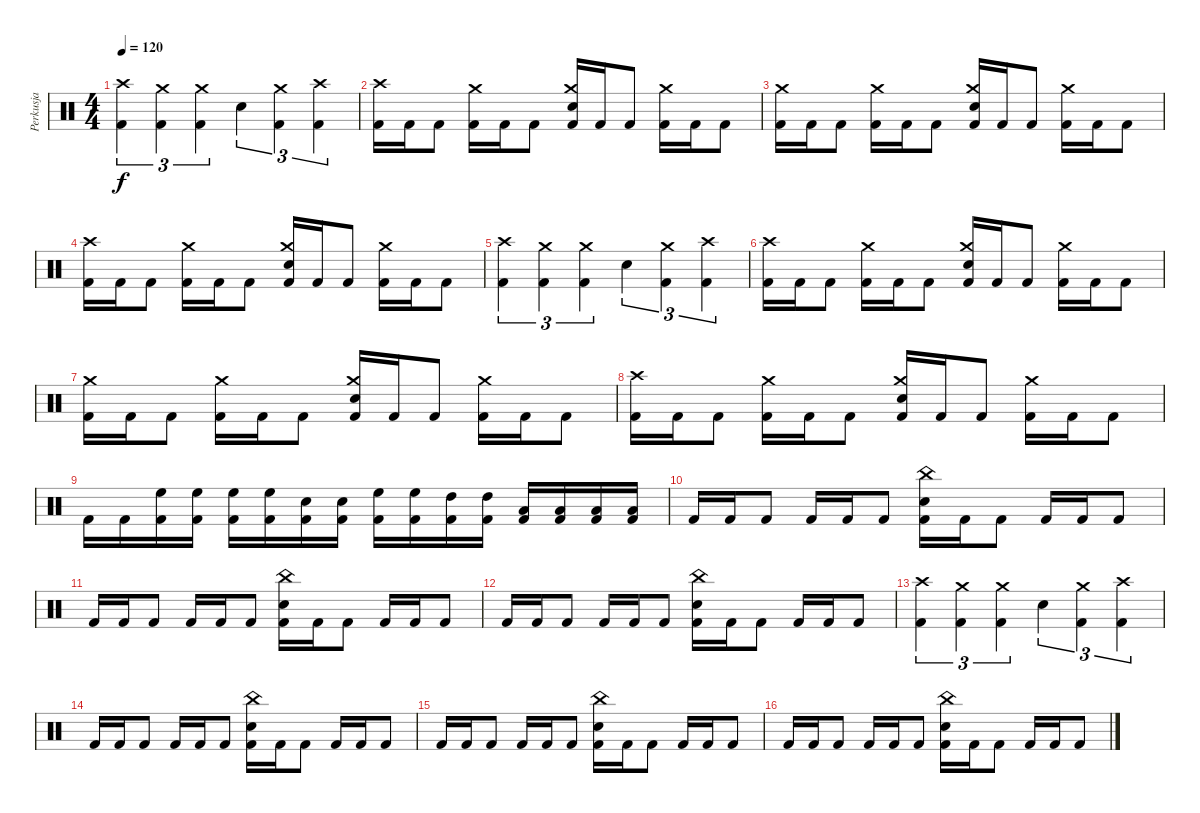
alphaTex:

\track ("Perkusja" "Perkusja") {instrument percussion}
\staff {score}
\articulation defaults
\ts (4 4)
\tempo 120
\clef neutral
\ks c
("Crash high (hit)" "Kick (hit) 2").4{tu (3 2) dy f} ("Crash medium (hit)" "Kick (hit) 2").4{tu (3 2)} ("Crash medium (hit)" "Kick (hit) 2").4{tu (3 2)} "Electric Snare (hit)".4{tu (3 2)} ("Crash medium (hit)" "Kick (hit) 2").4{tu (3 2)} ("Crash high (hit)" "Kick (hit) 2").4{tu (3 2)} |
("Crash high (hit)" "Kick (hit) 2").16 "Kick (hit) 2".16 "Kick (hit) 2".8 ("Crash medium (hit)" "Kick (hit) 2").16 "Kick (hit) 2".16 "Kick (hit) 2".8 ("Crash medium (hit)" "Electric Snare (hit)" "Kick (hit) 2").16 "Kick (hit) 2".16 "Kick (hit) 2".8 ("Crash medium (hit)" "Kick (hit) 2").16 "Kick (hit) 2".16 "Kick (hit) 2".8 |
("Crash medium (hit)" "Kick (hit) 2").16 "Kick (hit) 2".16 "Kick (hit) 2".8 ("Crash medium (hit)" "Kick (hit) 2").16 "Kick (hit) 2".16 "Kick (hit) 2".8 ("Crash medium (hit)" "Electric Snare (hit)" "Kick (hit) 2").16 "Kick (hit) 2".16 "Kick (hit) 2".8 ("Crash medium (hit)" "Kick (hit) 2").16 "Kick (hit) 2".16 "Kick (hit) 2".8 |
("Crash high (hit)" "Kick (hit) 2").16 "Kick (hit) 2".16 "Kick (hit) 2".8 ("Crash medium (hit)" "Kick (hit) 2").16 "Kick (hit) 2".16 "Kick (hit) 2".8 ("Crash medium (hit)" "Electric Snare (hit)" "Kick (hit) 2").16 "Kick (hit) 2".16 "Kick (hit) 2".8 ("Crash medium (hit)" "Kick (hit) 2").16 "Kick (hit) 2".16 "Kick (hit) 2".8 |
("Crash high (hit)" "Kick (hit) 2").4{tu (3 2)} ("Crash medium (hit)" "Kick (hit) 2").4{tu (3 2)} ("Crash medium (hit)" "Kick (hit) 2").4{tu (3 2)} "Electric Snare (hit)".4{tu (3 2)} ("Crash medium (hit)" "Kick (hit) 2").4{tu (3 2)} ("Crash high (hit)" "Kick (hit) 2").4{tu (3 2)} |
("Crash high (hit)" "Kick (hit) 2").16 "Kick (hit) 2".16 "Kick (hit) 2".8 ("Crash medium (hit)" "Kick (hit) 2").16 "Kick (hit) 2".16 "Kick (hit) 2".8 ("Crash medium (hit)" "Electric Snare (hit)" "Kick (hit) 2").16 "Kick (hit) 2".16 "Kick (hit) 2".8 ("Crash medium (hit)" "Kick (hit) 2").16 "Kick (hit) 2".16 "Kick (hit) 2".8 |
("Crash medium (hit)" "Kick (hit) 2").16 "Kick (hit) 2".16 "Kick (hit) 2".8 ("Crash medium (hit)" "Kick (hit) 2").16 "Kick (hit) 2".16 "Kick (hit) 2".8 ("Crash medium (hit)" "Electric Snare (hit)" "Kick (hit) 2").16 "Kick (hit) 2".16 "Kick (hit) 2".8 ("Crash medium (hit)" "Kick (hit) 2").16 "Kick (hit) 2".16 "Kick (hit) 2".8 |
("Crash high (hit)" "Kick (hit) 2").16 "Kick (hit) 2".16 "Kick (hit) 2".8 ("Crash medium (hit)" "Kick (hit) 2").16 "Kick (hit) 2".16 "Kick (hit) 2".8 ("Crash medium (hit)" "Electric Snare (hit)" "Kick (hit) 2").16 "Kick (hit) 2".16 "Kick (hit) 2".8 ("Crash medium (hit)" "Kick (hit) 2").16 "Kick (hit) 2".16 "Kick (hit) 2".8 |
"Kick (hit) 2".16 "Kick (hit) 2".16 ("High Floor Tom (hit)" "Kick (hit) 2").16 ("High Floor Tom (hit)" "Kick (hit) 2").16 ("High Floor Tom (hit)" "Kick (hit) 2").16 ("High Floor Tom (hit)" "Kick (hit) 2").16 ("Electric Snare (hit)" "Kick (hit) 2").16 ("Electric Snare (hit)" "Kick (hit) 2").16 ("High Floor Tom (hit)" "Kick (hit) 2").16 ("High Floor Tom (hit)" "Kick (hit) 2").16 ("High Tom (hit)" "Kick (hit) 2").16 ("High Tom (hit)" "Kick (hit) 2").16 ("Low Floor Tom (hit)" "Kick (hit) 2").16 ("Low Floor Tom (hit)" "Kick (hit) 2").16 ("Low Floor Tom (hit)" "Kick (hit) 2").16 ("Low Floor Tom (hit)" "Kick (hit) 2").16 |
"Kick (hit) 2".16 "Kick (hit) 2".16 "Kick (hit) 2".8 "Kick (hit) 2".16 "Kick (hit) 2".16 "Kick (hit) 2".8 ("China (hit)" "Electric Snare (hit)" "Kick (hit) 2").16 "Kick (hit) 2".16 "Kick (hit) 2".8 "Kick (hit) 2".16 "Kick (hit) 2".16 "Kick (hit) 2".8 |
"Kick (hit) 2".16 "Kick (hit) 2".16 "Kick (hit) 2".8 "Kick (hit) 2".16 "Kick (hit) 2".16 "Kick (hit) 2".8 ("China (hit)" "Electric Snare (hit)" "Kick (hit) 2").16 "Kick (hit) 2".16 "Kick (hit) 2".8 "Kick (hit) 2".16 "Kick (hit) 2".16 "Kick (hit) 2".8 |
"Kick (hit) 2".16 "Kick (hit) 2".16 "Kick (hit) 2".8 "Kick (hit) 2".16 "Kick (hit) 2".16 "Kick (hit) 2".8 ("China (hit)" "Electric Snare (hit)" "Kick (hit) 2").16 "Kick (hit) 2".16 "Kick (hit) 2".8 "Kick (hit) 2".16 "Kick (hit) 2".16 "Kick (hit) 2".8 |
("Crash high (hit)" "Kick (hit) 2").4{tu (3 2)} ("Crash medium (hit)" "Kick (hit) 2").4{tu (3 2)} ("Crash medium (hit)" "Kick (hit) 2").4{tu (3 2)} "Electric Snare (hit)".4{tu (3 2)} ("Crash medium (hit)" "Kick (hit) 2").4{tu (3 2)} ("Crash high (hit)" "Kick (hit) 2").4{tu (3 2)} |
"Kick (hit) 2".16 "Kick (hit) 2".16 "Kick (hit) 2".8 "Kick (hit) 2".16 "Kick (hit) 2".16 "Kick (hit) 2".8 ("China (hit)" "Electric Snare (hit)" "Kick (hit) 2").16 "Kick (hit) 2".16 "Kick (hit) 2".8 "Kick (hit) 2".16 "Kick (hit) 2".16 "Kick (hit) 2".8 |
"Kick (hit) 2".16 "Kick (hit) 2".16 "Kick (hit) 2".8 "Kick (hit) 2".16 "Kick (hit) 2".16 "Kick (hit) 2".8 ("China (hit)" "Electric Snare (hit)" "Kick (hit) 2").16 "Kick (hit) 2".16 "Kick (hit) 2".8 "Kick (hit) 2".16 "Kick (hit) 2".16 "Kick (hit) 2".8 |
"Kick (hit) 2".16 "Kick (hit) 2".16 "Kick (hit) 2".8 "Kick (hit) 2".16 "Kick (hit) 2".16 "Kick (hit) 2".8 ("China (hit)" "Electric Snare (hit)" "Kick (hit) 2").16 "Kick (hit) 2".16 "Kick (hit) 2".8 "Kick (hit) 2".16 "Kick (hit) 2".16 "Kick (hit) 2".8
